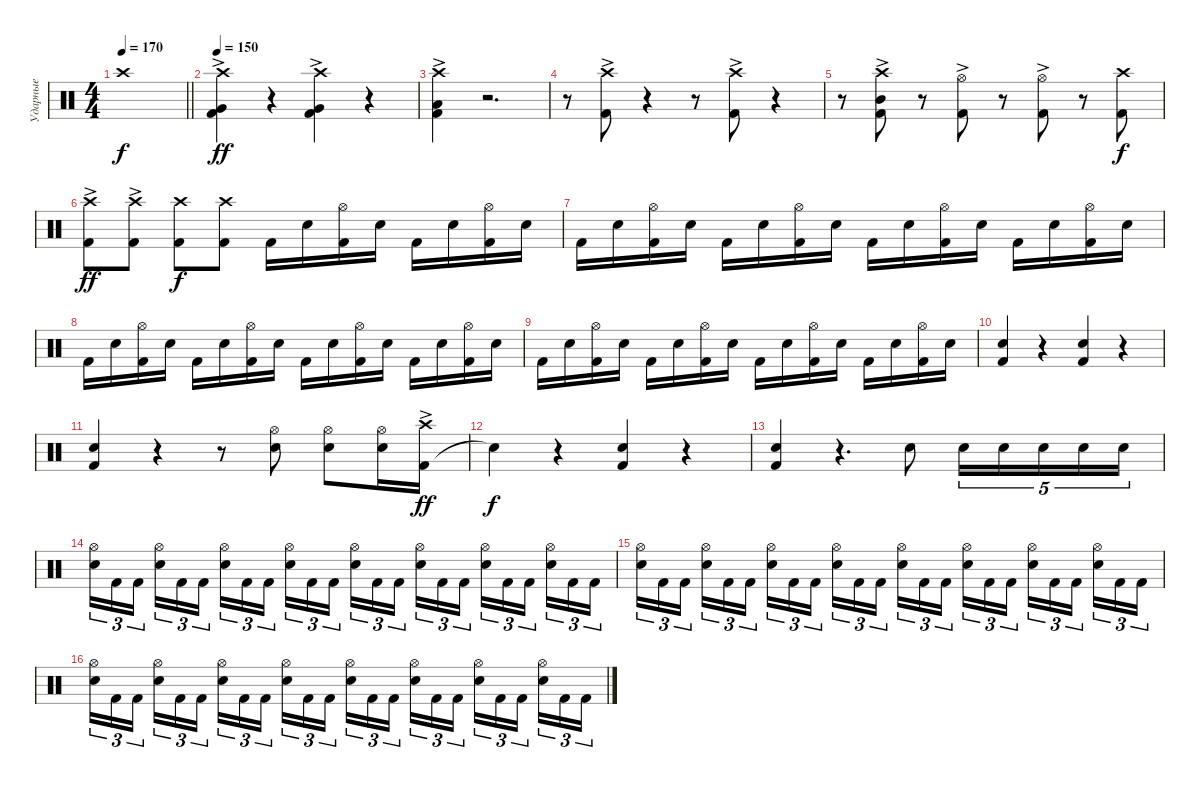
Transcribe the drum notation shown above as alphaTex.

\track ("Ударные" "Ударные") {instrument percussion}
\staff
\articulation defaults
\ts (4 4)
\tempo 170
\clef neutral
\barLineRight lightlight
\ks c "Crash high (hit)".1{dy f}
|
\tempo 150
("Kick (hit) 2"{ac} "Very Low Tom (hit)"{ac} "Crash high (hit)").4{dy ff volume 8} r.4 ("Kick (hit) 2"{ac} "Very Low Tom (hit)"{ac} "Crash high (hit)").4 r.4 |
("Kick (hit) 2"{ac} "Low Tom (hit)"{ac} "Crash high (hit)").4 r.2{d} |
r.8 ("Kick (hit) 2"{ac} "Crash high (hit)").8 r.4 r.8 ("Kick (hit) 2"{ac} "Crash high (hit)").8 r.4 |
r.8 ("Kick (hit) 2"{ac} "Mid Tom (hit)" "Crash high (hit)").8 r.8 ("Kick (hit) 2"{ac} "Hi-Hat (open)").8 r.8 ("Kick (hit) 2"{ac} "Hi-Hat (open)").8 r.8 ("Kick (hit) 2" "Crash high (hit)").8{dy f} |
("Kick (hit) 2" "Crash high (hit)"{ac}).8{dy ff} ("Kick (hit) 2" "Crash high (hit)"{ac}).8 ("Kick (hit) 2" "Crash high (hit)").8{dy f} ("Kick (hit) 2" "Crash high (hit)").8 "Kick (hit) 2".16 "Snare (hit) 2".16 ("Kick (hit) 2" "Hi-Hat (open)").16 "Snare (hit) 2".16 "Kick (hit) 2".16 "Snare (hit) 2".16 ("Kick (hit) 2" "Hi-Hat (open)").16 "Snare (hit) 2".16 |
"Kick (hit) 2".16 "Snare (hit) 2".16 ("Kick (hit) 2" "Hi-Hat (open)").16 "Snare (hit) 2".16 "Kick (hit) 2".16 "Snare (hit) 2".16 ("Kick (hit) 2" "Hi-Hat (open)").16 "Snare (hit) 2".16 "Kick (hit) 2".16 "Snare (hit) 2".16 ("Kick (hit) 2" "Hi-Hat (open)").16 "Snare (hit) 2".16 "Kick (hit) 2".16 "Snare (hit) 2".16 ("Kick (hit) 2" "Hi-Hat (open)").16 "Snare (hit) 2".16 |
"Kick (hit) 2".16 "Snare (hit) 2".16 ("Kick (hit) 2" "Hi-Hat (open)").16 "Snare (hit) 2".16 "Kick (hit) 2".16 "Snare (hit) 2".16 ("Kick (hit) 2" "Hi-Hat (open)").16 "Snare (hit) 2".16 "Kick (hit) 2".16 "Snare (hit) 2".16 ("Kick (hit) 2" "Hi-Hat (open)").16 "Snare (hit) 2".16 "Kick (hit) 2".16 "Snare (hit) 2".16 ("Kick (hit) 2" "Hi-Hat (open)").16 "Snare (hit) 2".16 |
"Kick (hit) 2".16 "Snare (hit) 2".16 ("Kick (hit) 2" "Hi-Hat (open)").16 "Snare (hit) 2".16 "Kick (hit) 2".16 "Snare (hit) 2".16 ("Kick (hit) 2" "Hi-Hat (open)").16 "Snare (hit) 2".16 "Kick (hit) 2".16 "Snare (hit) 2".16 ("Kick (hit) 2" "Hi-Hat (open)").16 "Snare (hit) 2".16 "Kick (hit) 2".16 "Snare (hit) 2".16 ("Kick (hit) 2" "Hi-Hat (open)").16 "Snare (hit) 2".16 |
("Kick (hit) 2" "Snare (hit) 2").4 r.4 ("Kick (hit) 2" "Snare (hit) 2").4 r.4 |
("Kick (hit) 2" "Snare (hit) 2").4 r.4 r.8 ("Snare (hit) 2" "Hi-Hat (open)").8 ("Snare (hit) 2" "Hi-Hat (open)").8 ("Snare (hit) 2" "Hi-Hat (open)").16 ("Kick (hit) 2" "Crash high (hit)"{ac}).16{dy ff} |
"Snare (hit)"{t}.4{dy f} r.4 ("Kick (hit) 2" "Snare (hit) 2").4 r.4 |
("Kick (hit) 2" "Snare (hit) 2").4 r.4{d} "Snare (hit) 2".8 "Snare (hit) 2".16{tu (5 4)} "Snare (hit) 2".16{tu (5 4)} "Snare (hit) 2".16{tu (5 4)} "Snare (hit) 2".16{tu (5 4)} "Snare (hit) 2".16{tu (5 4)} |
("Snare (hit) 2" "Hi-Hat (open)").16{tu (3 2)} "Kick (hit) 2".16{tu (3 2)} "Kick (hit) 2".16{tu (3 2) beam splitsecondary} ("Snare (hit) 2" "Hi-Hat (open)").16{tu (3 2)} "Kick (hit) 2".16{tu (3 2)} "Kick (hit) 2".16{tu (3 2)} ("Snare (hit) 2" "Hi-Hat (open)").16{tu (3 2)} "Kick (hit) 2".16{tu (3 2)} "Kick (hit) 2".16{tu (3 2) beam splitsecondary} ("Snare (hit) 2" "Hi-Hat (open)").16{tu (3 2)} "Kick (hit) 2".16{tu (3 2)} "Kick (hit) 2".16{tu (3 2)} ("Snare (hit) 2" "Hi-Hat (open)").16{tu (3 2)} "Kick (hit) 2".16{tu (3 2)} "Kick (hit) 2".16{tu (3 2) beam splitsecondary} ("Snare (hit) 2" "Hi-Hat (open)").16{tu (3 2)} "Kick (hit) 2".16{tu (3 2)} "Kick (hit) 2".16{tu (3 2)} ("Snare (hit) 2" "Hi-Hat (open)").16{tu (3 2)} "Kick (hit) 2".16{tu (3 2)} "Kick (hit) 2".16{tu (3 2) beam splitsecondary} ("Snare (hit) 2" "Hi-Hat (open)").16{tu (3 2)} "Kick (hit) 2".16{tu (3 2)} "Kick (hit) 2".16{tu (3 2)} |
("Snare (hit) 2" "Hi-Hat (open)").16{tu (3 2)} "Kick (hit) 2".16{tu (3 2)} "Kick (hit) 2".16{tu (3 2) beam splitsecondary} ("Snare (hit) 2" "Hi-Hat (open)").16{tu (3 2)} "Kick (hit) 2".16{tu (3 2)} "Kick (hit) 2".16{tu (3 2)} ("Snare (hit) 2" "Hi-Hat (open)").16{tu (3 2)} "Kick (hit) 2".16{tu (3 2)} "Kick (hit) 2".16{tu (3 2) beam splitsecondary} ("Snare (hit) 2" "Hi-Hat (open)").16{tu (3 2)} "Kick (hit) 2".16{tu (3 2)} "Kick (hit) 2".16{tu (3 2)} ("Snare (hit) 2" "Hi-Hat (open)").16{tu (3 2)} "Kick (hit) 2".16{tu (3 2)} "Kick (hit) 2".16{tu (3 2) beam splitsecondary} ("Snare (hit) 2" "Hi-Hat (open)").16{tu (3 2)} "Kick (hit) 2".16{tu (3 2)} "Kick (hit) 2".16{tu (3 2)} ("Snare (hit) 2" "Hi-Hat (open)").16{tu (3 2)} "Kick (hit) 2".16{tu (3 2)} "Kick (hit) 2".16{tu (3 2) beam splitsecondary} ("Snare (hit) 2" "Hi-Hat (open)").16{tu (3 2)} "Kick (hit) 2".16{tu (3 2)} "Kick (hit) 2".16{tu (3 2)} |
("Snare (hit) 2" "Hi-Hat (open)").16{tu (3 2)} "Kick (hit) 2".16{tu (3 2)} "Kick (hit) 2".16{tu (3 2) beam splitsecondary} ("Snare (hit) 2" "Hi-Hat (open)").16{tu (3 2)} "Kick (hit) 2".16{tu (3 2)} "Kick (hit) 2".16{tu (3 2)} ("Snare (hit) 2" "Hi-Hat (open)").16{tu (3 2)} "Kick (hit) 2".16{tu (3 2)} "Kick (hit) 2".16{tu (3 2) beam splitsecondary} ("Snare (hit) 2" "Hi-Hat (open)").16{tu (3 2)} "Kick (hit) 2".16{tu (3 2)} "Kick (hit) 2".16{tu (3 2)} ("Snare (hit) 2" "Hi-Hat (open)").16{tu (3 2)} "Kick (hit) 2".16{tu (3 2)} "Kick (hit) 2".16{tu (3 2) beam splitsecondary} ("Snare (hit) 2" "Hi-Hat (open)").16{tu (3 2)} "Kick (hit) 2".16{tu (3 2)} "Kick (hit) 2".16{tu (3 2)} ("Snare (hit) 2" "Hi-Hat (open)").16{tu (3 2)} "Kick (hit) 2".16{tu (3 2)} "Kick (hit) 2".16{tu (3 2) beam splitsecondary} ("Snare (hit) 2" "Hi-Hat (open)").16{tu (3 2)} "Kick (hit) 2".16{tu (3 2)} "Kick (hit) 2".16{tu (3 2)}
